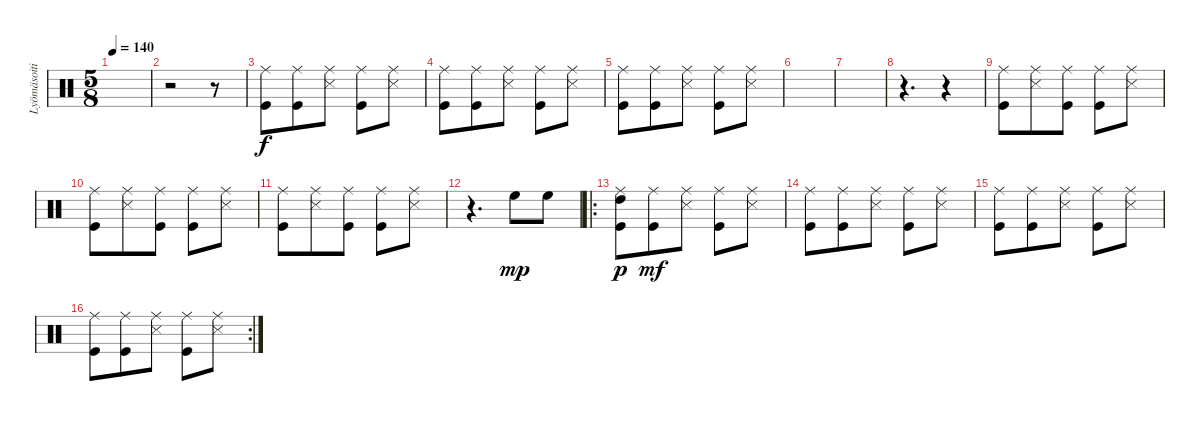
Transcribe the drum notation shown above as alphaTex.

\track ("Lyömäsoitin" "Lyömäsoiti") {instrument percussion}
\staff {score}
\articulation defaults
\ts (5 8)
\tempo 140
\clef neutral
\ks c
|
r.2 r.8 |
("Ride (middle)" "Kick (hit)").8 ("Ride (middle)" "Kick (hit)").8 ("Ride (middle)" "Snare (side stick) 3").8 ("Ride (middle)" "Kick (hit)").8 ("Ride (middle)" "Snare (side stick) 3").8 |
("Ride (middle)" "Kick (hit)").8 ("Ride (middle)" "Kick (hit)").8 ("Ride (middle)" "Snare (side stick) 3").8 ("Ride (middle)" "Kick (hit)").8 ("Ride (middle)" "Snare (side stick) 3").8 |
("Ride (middle)" "Kick (hit)").8 ("Ride (middle)" "Kick (hit)").8 ("Ride (middle)" "Snare (side stick) 3").8 ("Ride (middle)" "Kick (hit)").8 ("Ride (middle)" "Snare (side stick) 3").8 |
|
|
r.4{d} r.4 |
("Ride (middle)" "Kick (hit)").8 ("Ride (middle)" "Snare (side stick) 3").8 ("Ride (middle)" "Kick (hit)").8 ("Ride (middle)" "Kick (hit)").8 ("Ride (middle)" "Snare (side stick) 3").8 |
("Ride (middle)" "Kick (hit)").8 ("Ride (middle)" "Snare (side stick) 3").8 ("Ride (middle)" "Kick (hit)").8 ("Ride (middle)" "Kick (hit)").8 ("Ride (middle)" "Snare (side stick) 3").8 |
("Ride (middle)" "Kick (hit)").8 ("Ride (middle)" "Snare (side stick) 3").8 ("Ride (middle)" "Kick (hit)").8 ("Ride (middle)" "Kick (hit)").8 ("Ride (middle)" "Snare (side stick) 3").8 |
r.4{d} "High Floor Tom (hit)".8{dy mp} "High Floor Tom (hit)".8 |
\ro
("Ride (middle)" "Kick (hit)" "High Tom (hit)").8{dy p} ("Ride (middle)" "Kick (hit)").8{dy mf} ("Ride (middle)" "Snare (side stick) 3").8 ("Ride (middle)" "Kick (hit)").8 ("Ride (middle)" "Snare (side stick) 3").8 |
("Ride (middle)" "Kick (hit)").8 ("Ride (middle)" "Kick (hit)").8 ("Ride (middle)" "Snare (side stick) 3").8 ("Ride (middle)" "Kick (hit)").8 ("Ride (middle)" "Snare (side stick) 3").8 |
("Ride (middle)" "Kick (hit)").8 ("Ride (middle)" "Kick (hit)").8 ("Ride (middle)" "Snare (side stick) 3").8 ("Ride (middle)" "Kick (hit)").8 ("Ride (middle)" "Snare (side stick) 3").8 |
\rc 2
("Ride (middle)" "Kick (hit)").8 ("Ride (middle)" "Kick (hit)").8 ("Ride (middle)" "Snare (side stick) 3").8 ("Ride (middle)" "Kick (hit)").8 ("Ride (middle)" "Snare (side stick) 3").8
